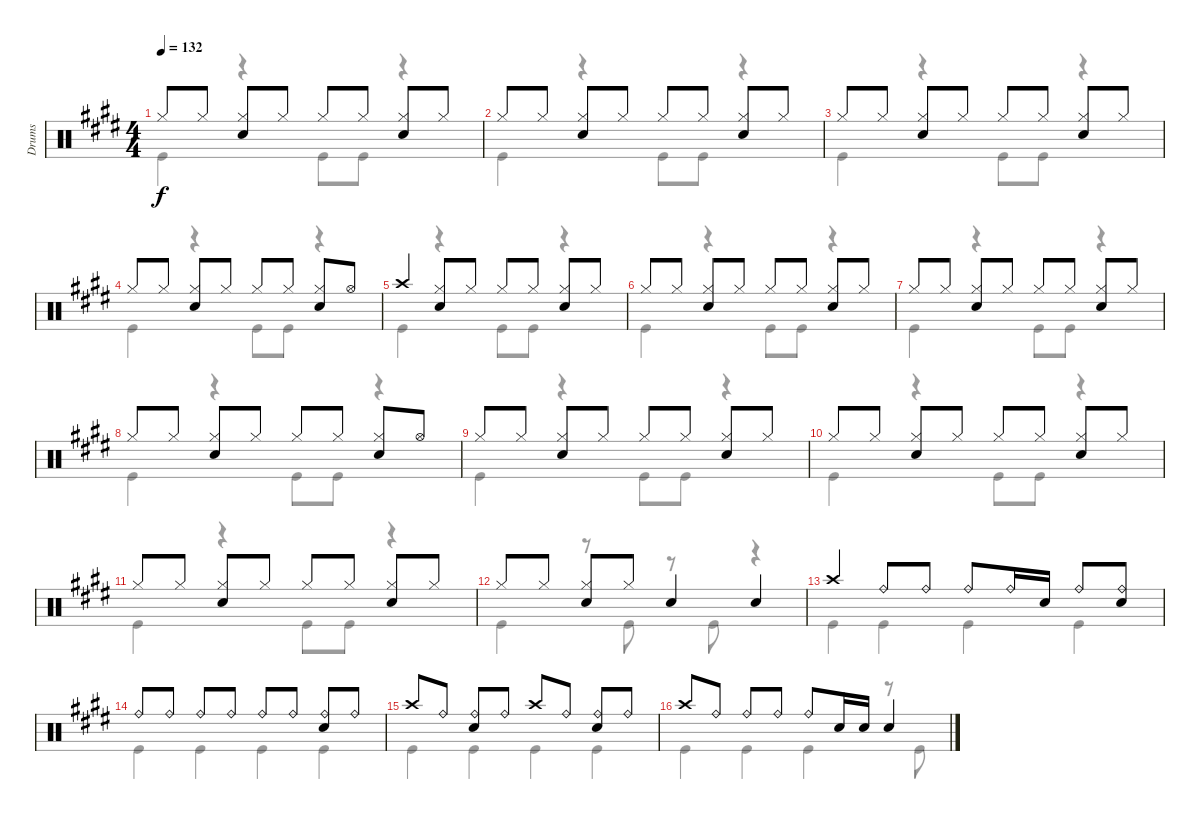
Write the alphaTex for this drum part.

\track ("Drums" "Drums") {instrument percussion}
\staff {score}
\articulation defaults
\voice
\ts (4 4)
\tempo 132
\clef neutral
\ks e "Hi-Hat (closed)".8{dy f} "Hi-Hat (closed)".8
("Hi-Hat (closed)" "Snare (hit) 2").8 "Hi-Hat (closed)".8 "Hi-Hat (closed)".8 "Hi-Hat (closed)".8 ("Hi-Hat (closed)" "Snare (hit) 2").8 "Hi-Hat (closed)".8 |
"Hi-Hat (closed)".8 "Hi-Hat (closed)".8 ("Hi-Hat (closed)" "Snare (hit) 2").8 "Hi-Hat (closed)".8 "Hi-Hat (closed)".8 "Hi-Hat (closed)".8 ("Hi-Hat (closed)" "Snare (hit) 2").8 "Hi-Hat (closed)".8 |
"Hi-Hat (closed)".8 "Hi-Hat (closed)".8 ("Hi-Hat (closed)" "Snare (hit) 2").8 "Hi-Hat (closed)".8 "Hi-Hat (closed)".8 "Hi-Hat (closed)".8 ("Hi-Hat (closed)" "Snare (hit) 2").8 "Hi-Hat (closed)".8 |
"Hi-Hat (closed)".8 "Hi-Hat (closed)".8 ("Hi-Hat (closed)" "Snare (hit) 2").8 "Hi-Hat (closed)".8 "Hi-Hat (closed)".8 "Hi-Hat (closed)".8 ("Hi-Hat (closed)" "Snare (hit) 2").8 "Hi-Hat (open)".8 |
"Crash high (hit)".4 ("Hi-Hat (closed)" "Snare (hit) 2").8 "Hi-Hat (closed)".8 "Hi-Hat (closed)".8 "Hi-Hat (closed)".8 ("Hi-Hat (closed)" "Snare (hit) 2").8 "Hi-Hat (closed)".8 |
"Hi-Hat (closed)".8 "Hi-Hat (closed)".8 ("Hi-Hat (closed)" "Snare (hit) 2").8 "Hi-Hat (closed)".8 "Hi-Hat (closed)".8 "Hi-Hat (closed)".8 ("Hi-Hat (closed)" "Snare (hit) 2").8 "Hi-Hat (closed)".8 |
"Hi-Hat (closed)".8 "Hi-Hat (closed)".8 ("Hi-Hat (closed)" "Snare (hit) 2").8 "Hi-Hat (closed)".8 "Hi-Hat (closed)".8 "Hi-Hat (closed)".8 ("Hi-Hat (closed)" "Snare (hit) 2").8 "Hi-Hat (closed)".8 |
"Hi-Hat (closed)".8 "Hi-Hat (closed)".8 ("Hi-Hat (closed)" "Snare (hit) 2").8 "Hi-Hat (closed)".8 "Hi-Hat (closed)".8 "Hi-Hat (closed)".8 ("Hi-Hat (closed)" "Snare (hit) 2").8 "Hi-Hat (open)".8 |
"Hi-Hat (closed)".8 "Hi-Hat (closed)".8 ("Hi-Hat (closed)" "Snare (hit) 2").8 "Hi-Hat (closed)".8 "Hi-Hat (closed)".8 "Hi-Hat (closed)".8 ("Hi-Hat (closed)" "Snare (hit) 2").8 "Hi-Hat (closed)".8 |
"Hi-Hat (closed)".8 "Hi-Hat (closed)".8 ("Hi-Hat (closed)" "Snare (hit) 2").8 "Hi-Hat (closed)".8 "Hi-Hat (closed)".8 "Hi-Hat (closed)".8 ("Hi-Hat (closed)" "Snare (hit) 2").8 "Hi-Hat (closed)".8 |
"Hi-Hat (closed)".8 "Hi-Hat (closed)".8 ("Hi-Hat (closed)" "Snare (hit) 2").8 "Hi-Hat (closed)".8 "Hi-Hat (closed)".8 "Hi-Hat (closed)".8 ("Hi-Hat (closed)" "Snare (hit) 2").8 "Hi-Hat (closed)".8 |
"Hi-Hat (closed)".8 "Hi-Hat (closed)".8 ("Hi-Hat (closed)" "Snare (hit) 2").8 "Hi-Hat (closed)".8 "Snare (hit) 2".4 "Snare (hit) 2".4 |
"Crash high (hit)".4 "Ride (bell)".8 "Ride (bell)".8 "Ride (bell)".8 "Ride (bell)".16 "Snare (hit) 2".16 "Ride (bell)".8 ("Ride (bell)" "Snare (hit) 2").8 |
"Ride (bell)".8 "Ride (bell)".8 "Ride (bell)".8 "Ride (bell)".8 "Ride (bell)".8 "Ride (bell)".8 ("Ride (bell)" "Snare (hit) 2").8 "Ride (bell)".8 |
"Crash high (hit)".8 "Ride (bell)".8 ("Ride (bell)" "Snare (hit) 2").8 "Ride (bell)".8 "Crash high (hit)".8 "Ride (bell)".8 ("Ride (bell)" "Snare (hit) 2").8 "Ride (bell)".8 |
"Crash high (hit)".8 "Ride (bell)".8 "Ride (bell)".8 "Ride (bell)".8 "Ride (bell)".8 "Snare (hit) 2".16 "Snare (hit) 2".16 "Snare (hit) 2".4
\voice
\clef neutral
\ottava regular
\simile none
\ks e "Kick (hit)".4{dy f}
r.4 "Kick (hit)".8 "Kick (hit)".8 r.4 |
"Kick (hit)".4 r.4 "Kick (hit)".8 "Kick (hit)".8 r.4 |
"Kick (hit)".4 r.4 "Kick (hit)".8 "Kick (hit)".8 r.4 |
"Kick (hit)".4 r.4 "Kick (hit)".8 "Kick (hit)".8 r.4 |
"Kick (hit)".4 r.4 "Kick (hit)".8 "Kick (hit)".8 r.4 |
"Kick (hit)".4 r.4 "Kick (hit)".8 "Kick (hit)".8 r.4 |
"Kick (hit)".4 r.4 "Kick (hit)".8 "Kick (hit)".8 r.4 |
"Kick (hit)".4 r.4 "Kick (hit)".8 "Kick (hit)".8 r.4 |
"Kick (hit)".4 r.4 "Kick (hit)".8 "Kick (hit)".8 r.4 |
"Kick (hit)".4 r.4 "Kick (hit)".8 "Kick (hit)".8 r.4 |
"Kick (hit)".4 r.4 "Kick (hit)".8 "Kick (hit)".8 r.4 |
"Kick (hit)".4 r.8 "Kick (hit)".8 r.8 "Kick (hit)".8 r.4 |
"Kick (hit)".4 "Kick (hit)".4 "Kick (hit)".4 "Kick (hit)".4 |
"Kick (hit)".4 "Kick (hit)".4 "Kick (hit)".4 "Kick (hit)".4 |
"Kick (hit)".4 "Kick (hit)".4 "Kick (hit)".4 "Kick (hit)".4 |
"Kick (hit)".4 "Kick (hit)".4 "Kick (hit)".4 r.8 "Kick (hit)".8
